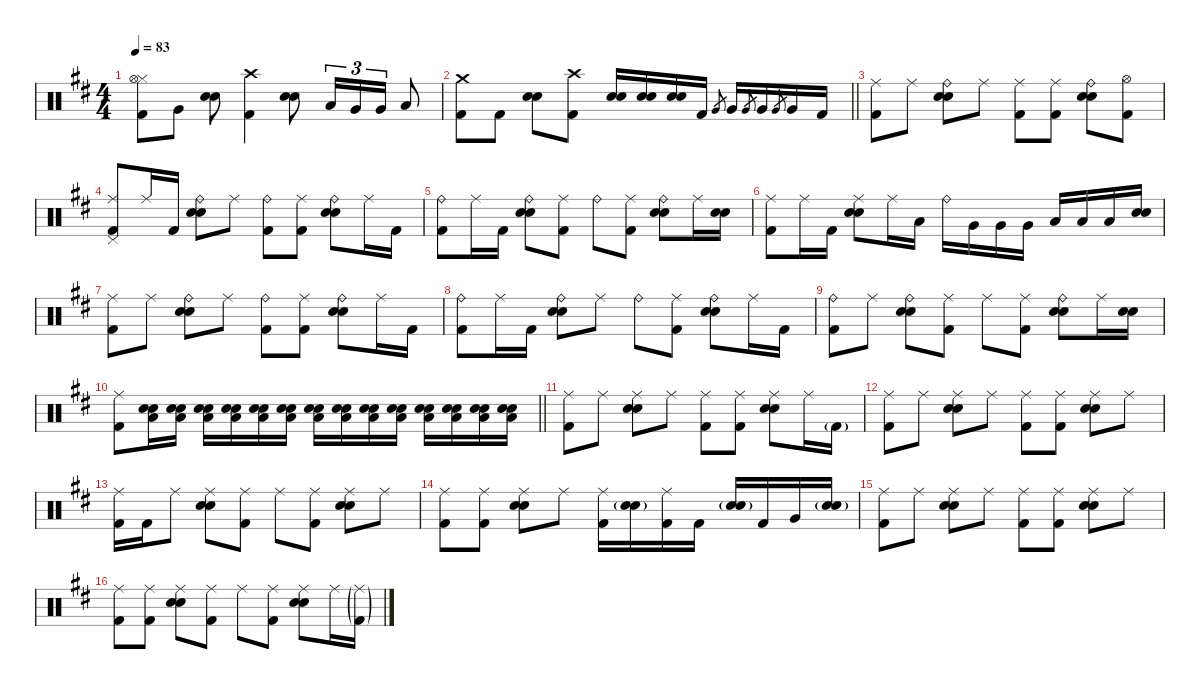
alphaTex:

\defaultSystemsLayout 4
\hideDynamics
\bracketExtendMode nobrackets
\singleTrackTrackNamePolicy hidden
\multiTrackTrackNamePolicy hidden
\firstSystemTrackNameMode fullname
\firstSystemTrackNameOrientation horizontal
\otherSystemsTrackNameOrientation horizontal
\track ("Batterie" "drm.") {defaultSystemsLayout 4 instrument percussion}
\staff {score}
\articulation defaults
\ts (4 4)
\tempo 83
\clef neutral
\ks bminor
("Hi-Hat (closed)"{acc forcenatural} "Hi-Hat (open)"{acc forcenatural} "Kick (hit) 2"{acc forcenatural}).8{dy f beam Down} "Very Low Tom (hit)"{acc forcenatural}.8{beam Down} ("Snare (hit) 2"{acc forcenatural} "Snare (hit) 2"{acc forcenatural}).8{dy mp beam Down} ("Crash high (hit)"{acc forcenatural} "Kick (hit) 2"{acc forcenatural}).4{beam Down} ("Snare (hit) 2"{acc forcenatural} "Snare (hit) 2"{acc forcenatural}).8{beam Down} "Low Tom (hit)"{acc forcenatural}.16{tu (3 2) dy f beam Up} "Very Low Tom (hit)"{acc forcenatural}.16{tu (3 2) beam Up} "Very Low Tom (hit)"{acc forcenatural}.16{tu (3 2) beam Up} "Low Floor Tom (hit)"{acc forcenatural}.8{beam Up} |
\barLineRight lightlight
("Crash medium (hit)"{acc forcenatural} "Kick (hit) 2"{acc forcenatural}).8{beam Down} "Kick (hit) 2"{acc forcenatural}.8{dy mf beam Down} ("Snare (hit) 2"{acc forcenatural} "Snare (hit) 2"{acc forcenatural}).8{dy mp beam Down} ("Crash high (hit)"{acc forcenatural} "Kick (hit) 2"{acc forcenatural}).8{beam Down} ("Snare (hit) 2"{acc forcenatural} "Snare (hit) 2"{acc forcenatural}).16{beam Up} ("Snare (hit) 2"{acc forcenatural} "Snare (hit) 2"{acc forcenatural}).16{beam Up} ("Snare (hit) 2"{acc forcenatural} "Snare (hit) 2"{acc forcenatural}).16{beam Up} "Kick (hit) 2"{acc forcenatural}.16{dy mf beam Up} "Very Low Tom (hit)"{acc forcenatural}.8{gr beam Up} "Very Low Tom (hit)"{acc forcenatural}.16{dy f beam Up} "Very Low Tom (hit)"{acc forcenatural}.8{gr dy mf beam Up} "Very Low Tom (hit)"{acc forcenatural}.16{dy f beam Up} "Very Low Tom (hit)"{acc forcenatural}.8{gr dy mf beam Up} "Very Low Tom (hit)"{acc forcenatural}.16{dy f beam Up} "Kick (hit) 2"{acc forcenatural}.16{dy mf beam Up} |
("Ride (middle)"{acc forcenatural} "Kick (hit) 2"{acc forcenatural}).8{dy f beam Down} "Ride (middle)"{acc forcenatural}.8{beam Down} ("Ride (bell)"{acc forcenatural} "Snare (hit) 2"{acc forcenatural} "Snare (hit) 2"{acc forcenatural}).8{beam Down} "Ride (middle)"{acc forcenatural}.8{beam Down} ("Ride (middle)"{acc forcenatural} "Kick (hit) 2"{acc forcenatural}).8{beam Down} ("Ride (middle)"{acc forcenatural} "Kick (hit) 2"{acc forcenatural}).8{beam Down} ("Ride (bell)"{acc forcenatural} "Snare (hit) 2"{acc forcenatural} "Snare (hit) 2"{acc forcenatural}).8{beam Down} ("Hi-Hat (open)"{acc forcenatural} "Kick (hit) 2"{acc forcenatural}).8{dy mp beam Down} |
("Ride (middle)"{acc forcenatural} "Pedal Hi-Hat (hit)"{acc forcenatural} "Kick (hit) 2"{acc forcenatural}).8{dy f beam Up} "Ride (middle)"{acc forcenatural}.16{beam Up} "Kick (hit) 2"{acc forcenatural}.16{dy mf beam Up} ("Ride (bell)"{acc forcenatural} "Snare (hit) 2"{acc forcenatural} "Snare (hit) 2"{acc forcenatural}).8{dy f beam Down} "Ride (middle)"{acc forcenatural}.8{beam Down} ("Ride (bell)"{acc forcenatural} "Kick (hit) 2"{acc forcenatural}).8{beam Down} ("Ride (middle)"{acc forcenatural} "Kick (hit) 2"{acc forcenatural}).8{beam Down} ("Ride (bell)"{acc forcenatural} "Snare (hit) 2"{acc forcenatural} "Snare (hit) 2"{acc forcenatural}).8{beam Down} "Ride (middle)"{acc forcenatural}.16{beam Down} "Kick (hit) 2"{acc forcenatural}.16{dy mf beam Down} |
("Ride (bell)"{acc forcenatural} "Kick (hit) 2"{acc forcenatural}).8{dy f beam Down} "Ride (middle)"{acc forcenatural}.16{beam Down} "Kick (hit) 2"{acc forcenatural}.16{dy mf beam Down} ("Ride (bell)"{acc forcenatural} "Snare (hit) 2"{acc forcenatural} "Snare (hit) 2"{acc forcenatural}).8{dy f beam Down} ("Ride (middle)"{acc forcenatural} "Kick (hit) 2"{acc forcenatural}).8{beam Down} "Ride (bell)"{acc forcenatural}.8{beam Down} ("Ride (middle)"{acc forcenatural} "Kick (hit) 2"{acc forcenatural}).8{beam Down} ("Ride (bell)"{acc forcenatural} "Snare (hit) 2"{acc forcenatural} "Snare (hit) 2"{acc forcenatural}).8{beam Down} "Ride (middle)"{acc forcenatural}.16{beam Down} ("Snare (hit) 2"{acc forcenatural} "Snare (hit) 2"{acc forcenatural}).16{dy mp beam Down} |
("Ride (middle)"{acc forcenatural} "Kick (hit) 2"{acc forcenatural}).8{dy f beam Down} "Ride (middle)"{acc forcenatural}.16{beam Down} "Kick (hit) 2"{acc forcenatural}.16{dy mf beam Down} ("Ride (middle)"{acc forcenatural} "Snare (hit) 2"{acc forcenatural} "Snare (hit) 2"{acc forcenatural}).8{dy f beam Down} "Ride (middle)"{acc forcenatural}.16{beam Down} "Low Tom (hit)"{acc forcenatural}.16{dy mp beam Down} "Ride (bell)"{acc forcenatural}.16{dy f beam Down} "Very Low Tom (hit)"{acc forcenatural}.16{beam Down} "Very Low Tom (hit)"{acc forcenatural}.16{beam Down} "Very Low Tom (hit)"{acc forcenatural}.16{beam Down} "Low Floor Tom (hit)"{acc forcenatural}.16{beam Up} "Low Floor Tom (hit)"{acc forcenatural}.16{beam Up} "Low Floor Tom (hit)"{acc forcenatural}.16{beam Up} ("Snare (hit) 2"{acc forcenatural} "Snare (hit) 2"{acc forcenatural}).16{dy mp beam Up} |
("Ride (middle)"{acc forcenatural} "Kick (hit) 2"{acc forcenatural}).8{dy f beam Down} "Ride (middle)"{acc forcenatural}.8{beam Down} ("Ride (bell)"{acc forcenatural} "Snare (hit) 2"{acc forcenatural} "Snare (hit) 2"{acc forcenatural}).8{beam Down} "Ride (middle)"{acc forcenatural}.8{beam Down} ("Ride (bell)"{acc forcenatural} "Kick (hit) 2"{acc forcenatural}).8{beam Down} ("Ride (middle)"{acc forcenatural} "Kick (hit) 2"{acc forcenatural}).8{beam Down} ("Ride (bell)"{acc forcenatural} "Snare (hit) 2"{acc forcenatural} "Snare (hit) 2"{acc forcenatural}).8{beam Down} "Ride (middle)"{acc forcenatural}.16{beam Down} "Kick (hit) 2"{acc forcenatural}.16{dy mf beam Down} |
("Ride (bell)"{acc forcenatural} "Kick (hit) 2"{acc forcenatural}).8{dy f beam Down} "Ride (middle)"{acc forcenatural}.16{beam Down} "Kick (hit) 2"{acc forcenatural}.16{dy mf beam Down} ("Ride (bell)"{acc forcenatural} "Snare (hit) 2"{acc forcenatural} "Snare (hit) 2"{acc forcenatural}).8{dy f beam Down} "Ride (middle)"{acc forcenatural}.8{beam Down} "Ride (bell)"{acc forcenatural}.8{beam Down} ("Ride (middle)"{acc forcenatural} "Kick (hit) 2"{acc forcenatural}).8{beam Down} ("Ride (bell)"{acc forcenatural} "Snare (hit) 2"{acc forcenatural} "Snare (hit) 2"{acc forcenatural}).8{beam Down} "Ride (middle)"{acc forcenatural}.16{beam Down} "Kick (hit) 2"{acc forcenatural}.16{dy mf beam Down} |
("Ride (bell)"{acc forcenatural} "Kick (hit) 2"{acc forcenatural}).8{dy f beam Down} "Ride (middle)"{acc forcenatural}.8{beam Down} ("Ride (bell)"{acc forcenatural} "Snare (hit) 2"{acc forcenatural} "Snare (hit) 2"{acc forcenatural}).8{beam Down} ("Ride (middle)"{acc forcenatural} "Kick (hit) 2"{acc forcenatural}).8{beam Down} "Ride (middle)"{acc forcenatural}.8{beam Down} ("Ride (middle)"{acc forcenatural} "Kick (hit) 2"{acc forcenatural}).8{beam Down} ("Ride (bell)"{acc forcenatural} "Snare (hit) 2"{acc forcenatural} "Snare (hit) 2"{acc forcenatural}).8{beam Down} "Ride (middle)"{acc forcenatural}.16{beam Down} ("Snare (hit) 2"{acc forcenatural} "Snare (hit) 2"{acc forcenatural}).16{dy mf beam Down} |
\barLineRight lightlight
("Ride (middle)"{acc forcenatural} "Kick (hit) 2"{acc forcenatural}).8{dy f beam Down} ("Snare (hit) 2"{acc forcenatural} "Snare (hit) 2"{acc forcenatural} "Low Floor Tom (hit)"{acc forcenatural}).16{dy pp beam Down} ("Snare (hit) 2"{acc forcenatural} "Snare (hit) 2"{acc forcenatural} "Low Floor Tom (hit)"{acc forcenatural}).16{beam Down} ("Snare (hit) 2"{acc forcenatural} "Snare (hit) 2"{acc forcenatural} "Low Floor Tom (hit)"{acc forcenatural}).16{dy p beam Down} ("Snare (hit) 2"{acc forcenatural} "Snare (hit) 2"{acc forcenatural} "Low Floor Tom (hit)"{acc forcenatural}).16{beam Down} ("Snare (hit) 2"{acc forcenatural} "Snare (hit) 2"{acc forcenatural} "Low Floor Tom (hit)"{acc forcenatural}).16{beam Down} ("Snare (hit) 2"{acc forcenatural} "Snare (hit) 2"{acc forcenatural} "Low Floor Tom (hit)"{acc forcenatural}).16{dy mp beam Down} ("Snare (hit) 2"{acc forcenatural} "Snare (hit) 2"{acc forcenatural} "Low Floor Tom (hit)"{acc forcenatural}).16{beam Down} ("Snare (hit) 2"{acc forcenatural} "Snare (hit) 2"{acc forcenatural} "Low Floor Tom (hit)"{acc forcenatural}).16{beam Down} ("Snare (hit) 2"{acc forcenatural} "Snare (hit) 2"{acc forcenatural} "Low Floor Tom (hit)"{acc forcenatural}).16{dy mf beam Down} ("Snare (hit) 2"{acc forcenatural} "Snare (hit) 2"{acc forcenatural} "Low Floor Tom (hit)"{acc forcenatural}).16{beam Down} ("Snare (hit) 2"{acc forcenatural} "Snare (hit) 2"{acc forcenatural} "Low Floor Tom (hit)"{acc forcenatural}).16{beam Down} ("Snare (hit) 2"{acc forcenatural} "Snare (hit) 2"{acc forcenatural} "Low Floor Tom (hit)"{acc forcenatural}).16{dy f beam Down} ("Snare (hit) 2"{acc forcenatural} "Snare (hit) 2"{acc forcenatural} "Low Floor Tom (hit)"{acc forcenatural}).16{beam Down} ("Snare (hit) 2"{acc forcenatural} "Snare (hit) 2"{acc forcenatural} "Low Floor Tom (hit)"{acc forcenatural}).16{dy ff beam Down} |
("Ride (middle)"{acc forcenatural} "Kick (hit) 2"{acc forcenatural}).8{dy f beam Down} "Ride (middle)"{acc forcenatural}.8{beam Down} ("Ride (middle)"{acc forcenatural} "Snare (hit) 2"{acc forcenatural} "Snare (hit) 2"{acc forcenatural}).8{beam Down} "Ride (middle)"{acc forcenatural}.8{beam Down} ("Ride (middle)"{acc forcenatural} "Kick (hit) 2"{acc forcenatural}).8{beam Down} ("Ride (middle)"{acc forcenatural} "Kick (hit) 2"{acc forcenatural}).8{beam Down} ("Ride (middle)"{acc forcenatural} "Snare (hit) 2"{acc forcenatural} "Snare (hit) 2"{acc forcenatural}).8{beam Down} "Ride (middle)"{acc forcenatural}.16{beam Down} "Kick (hit) 2"{g acc forcenatural}.16{dy mf beam Down} |
("Ride (middle)"{acc forcenatural} "Kick (hit) 2"{acc forcenatural}).8{dy f beam Down} "Ride (middle)"{acc forcenatural}.8{beam Down} ("Ride (middle)"{acc forcenatural} "Snare (hit) 2"{acc forcenatural} "Snare (hit) 2"{acc forcenatural}).8{beam Down} "Ride (middle)"{acc forcenatural}.8{beam Down} ("Ride (middle)"{acc forcenatural} "Kick (hit) 2"{acc forcenatural}).8{beam Down} ("Ride (middle)"{acc forcenatural} "Kick (hit) 2"{acc forcenatural}).8{beam Down} ("Ride (middle)"{acc forcenatural} "Snare (hit) 2"{acc forcenatural} "Snare (hit) 2"{acc forcenatural}).8{beam Down} "Ride (middle)"{acc forcenatural}.8{beam Down} |
("Ride (middle)"{acc forcenatural} "Kick (hit) 2"{acc forcenatural}).16{beam Down} "Kick (hit) 2"{acc forcenatural}.16{dy mf beam Down} "Ride (middle)"{acc forcenatural}.8{dy f beam Down} ("Ride (middle)"{acc forcenatural} "Snare (hit) 2"{acc forcenatural} "Snare (hit) 2"{acc forcenatural}).8{beam Down} ("Ride (middle)"{acc forcenatural} "Kick (hit) 2"{acc forcenatural}).8{beam Down} "Ride (middle)"{acc forcenatural}.8{beam Down} ("Ride (middle)"{acc forcenatural} "Kick (hit) 2"{acc forcenatural}).8{beam Down} ("Ride (middle)"{acc forcenatural} "Snare (hit) 2"{acc forcenatural} "Snare (hit) 2"{acc forcenatural}).8{beam Down} "Ride (middle)"{acc forcenatural}.8{beam Down} |
("Ride (middle)"{acc forcenatural} "Kick (hit) 2"{acc forcenatural}).8{beam Down} ("Ride (middle)"{acc forcenatural} "Kick (hit) 2"{acc forcenatural}).8{beam Down} ("Ride (middle)"{acc forcenatural} "Snare (hit) 2"{acc forcenatural} "Snare (hit) 2"{acc forcenatural}).8{beam Down} "Ride (middle)"{acc forcenatural}.8{beam Down} ("Ride (middle)"{acc forcenatural} "Kick (hit) 2"{acc forcenatural}).16{beam Down} ("Snare (hit) 2"{g acc forcenatural} "Snare (hit) 2"{g acc forcenatural}).16{dy mp beam Down} ("Ride (middle)"{acc forcenatural} "Kick (hit) 2"{acc forcenatural}).16{dy f beam Down} "Kick (hit) 2"{acc forcenatural}.16{dy mf beam Down} ("Snare (hit) 2"{g acc forcenatural} "Snare (hit) 2"{g acc forcenatural}).16{dy f beam Up} "Kick (hit) 2"{acc forcenatural}.16{dy mf beam Up} "Very Low Tom (hit)"{acc forcenatural}.16{dy f beam Up} ("Snare (hit) 2"{g acc forcenatural} "Snare (hit) 2"{g acc forcenatural}).16{beam Up} |
("Ride (middle)"{acc forcenatural} "Kick (hit) 2"{acc forcenatural}).8{beam Down} "Ride (middle)"{acc forcenatural}.8{beam Down} ("Ride (middle)"{acc forcenatural} "Snare (hit) 2"{acc forcenatural} "Snare (hit) 2"{acc forcenatural}).8{beam Down} "Ride (middle)"{acc forcenatural}.8{beam Down} ("Ride (middle)"{acc forcenatural} "Kick (hit) 2"{acc forcenatural}).8{beam Down} ("Ride (middle)"{acc forcenatural} "Kick (hit) 2"{acc forcenatural}).8{beam Down} ("Ride (middle)"{acc forcenatural} "Snare (hit) 2"{acc forcenatural} "Snare (hit) 2"{acc forcenatural}).8{beam Down} "Ride (middle)"{acc forcenatural}.8{beam Down} |
("Ride (middle)"{acc forcenatural} "Kick (hit) 2"{acc forcenatural}).8{beam Down} ("Ride (middle)"{acc forcenatural} "Kick (hit) 2"{acc forcenatural}).8{beam Down} ("Ride (middle)"{acc forcenatural} "Snare (hit) 2"{acc forcenatural} "Snare (hit) 2"{acc forcenatural}).8{beam Down} ("Ride (middle)"{acc forcenatural} "Kick (hit) 2"{acc forcenatural}).8{beam Down} "Ride (middle)"{acc forcenatural}.8{beam Down} ("Ride (middle)"{acc forcenatural} "Kick (hit) 2"{acc forcenatural}).8{beam Down} ("Ride (middle)"{acc forcenatural} "Snare (hit) 2"{acc forcenatural} "Snare (hit) 2"{acc forcenatural}).8{beam Down} "Ride (middle)"{acc forcenatural}.16{beam Down} ("Ride (middle)"{g acc forcenatural} "Kick (hit) 2"{g acc forcenatural}).16{dy mf beam Down}
